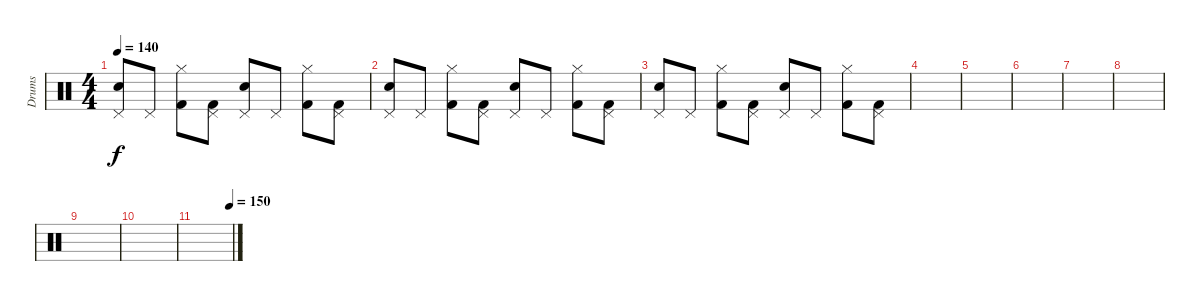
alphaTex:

\track ("Drums" "Drums") {instrument percussion}
\staff {score}
\articulation defaults
\ts (4 4)
\tempo 140
\clef neutral
\ks c
("Electric Snare (hit)" "Pedal Hi-Hat (hit)").8{dy f} "Pedal Hi-Hat (hit)".8 ("Kick (hit) 2" "Hi-Hat (closed)").8 ("Kick (hit) 2" "Pedal Hi-Hat (hit)").8 ("Electric Snare (hit)" "Pedal Hi-Hat (hit)").8 "Pedal Hi-Hat (hit)".8 ("Kick (hit) 2" "Hi-Hat (closed)").8 ("Kick (hit) 2" "Pedal Hi-Hat (hit)").8 |
("Electric Snare (hit)" "Pedal Hi-Hat (hit)").8 "Pedal Hi-Hat (hit)".8 ("Kick (hit) 2" "Hi-Hat (closed)").8 ("Kick (hit) 2" "Pedal Hi-Hat (hit)").8 ("Electric Snare (hit)" "Pedal Hi-Hat (hit)").8 "Pedal Hi-Hat (hit)".8 ("Kick (hit) 2" "Hi-Hat (closed)").8 ("Kick (hit) 2" "Pedal Hi-Hat (hit)").8 |
("Electric Snare (hit)" "Pedal Hi-Hat (hit)").8 "Pedal Hi-Hat (hit)".8 ("Kick (hit) 2" "Hi-Hat (closed)").8 ("Kick (hit) 2" "Pedal Hi-Hat (hit)").8 ("Electric Snare (hit)" "Pedal Hi-Hat (hit)").8 "Pedal Hi-Hat (hit)".8 ("Kick (hit) 2" "Hi-Hat (closed)").8 ("Kick (hit) 2" "Pedal Hi-Hat (hit)").8 |
|
|
|
|
|
|
|
\tempo (150 0.9375)
